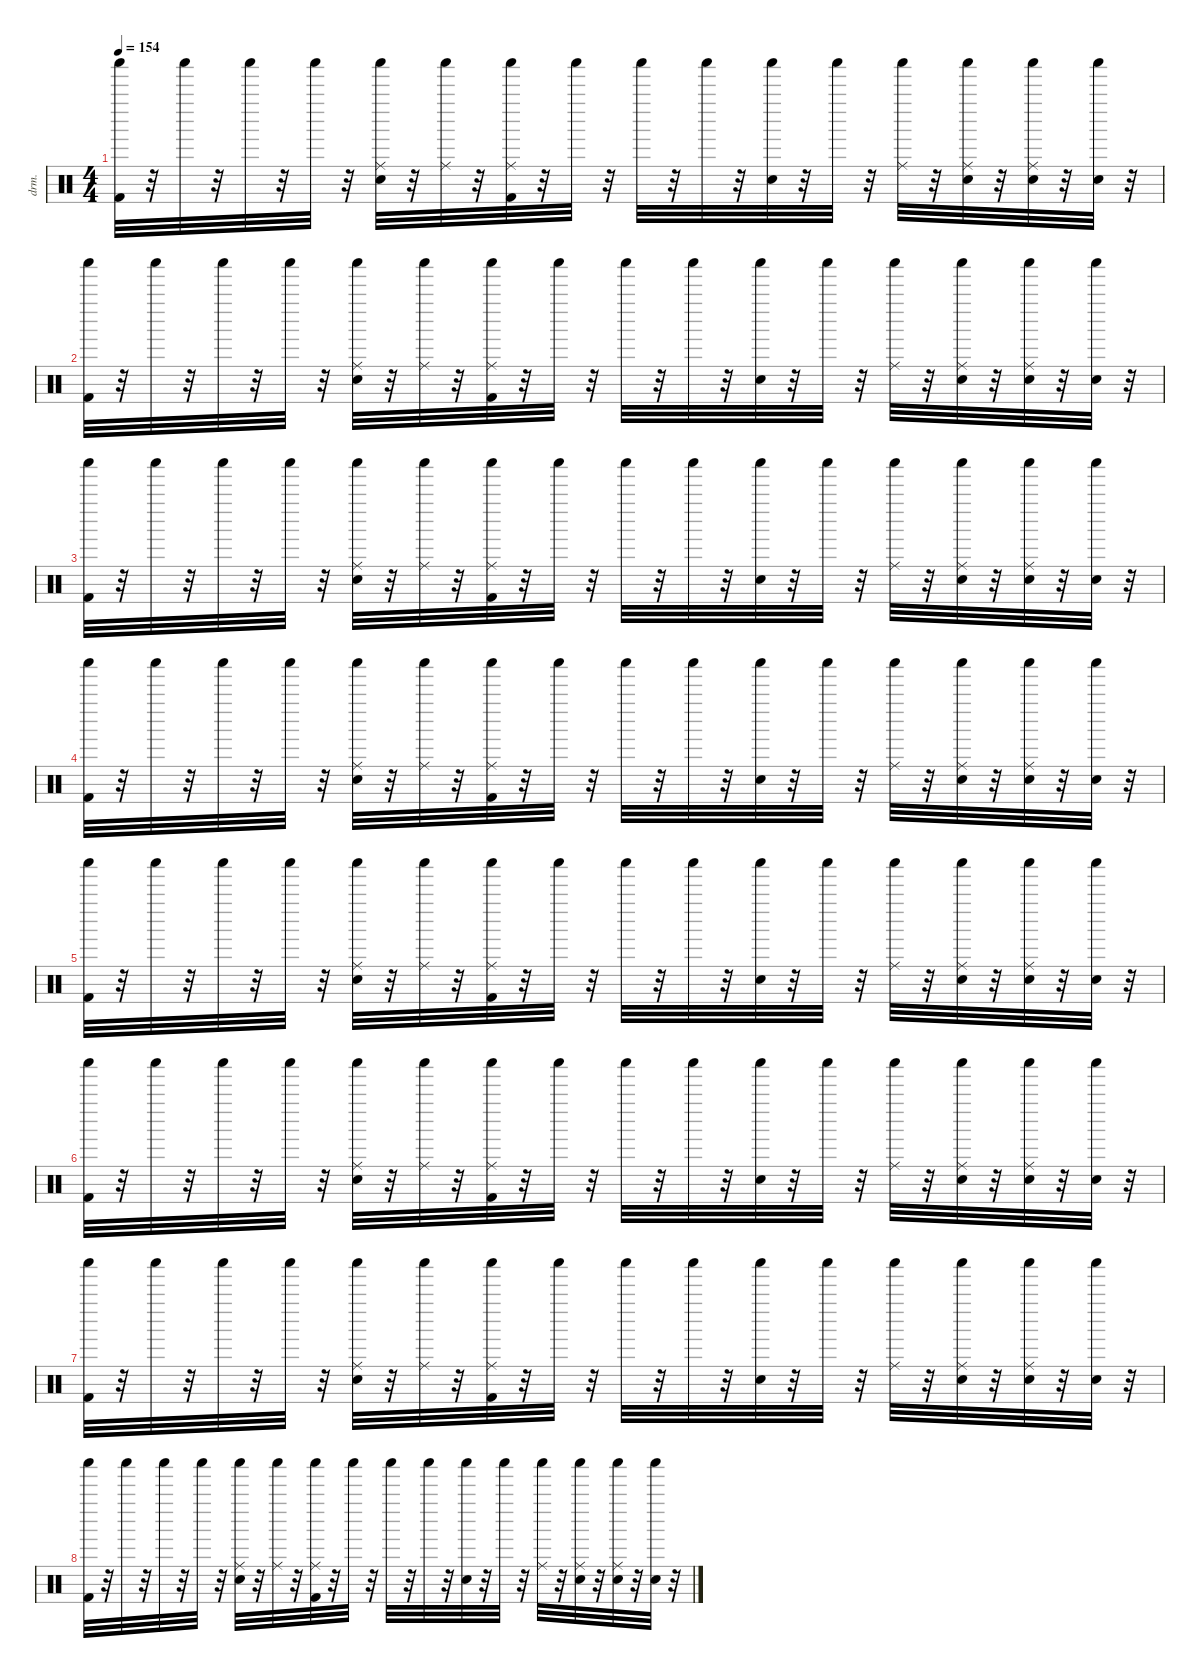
\defaultSystemsLayout 4
\hideDynamics
\bracketExtendMode nobrackets
\otherSystemsTrackNameOrientation horizontal
\track ("Percussion" "drm.") {instrument percussion}
\staff {score}
\articulation defaults
\ts (4 4)
\tempo 154
\clef neutral
\ks c
("Shaker (hit)" "Kick (hit) 2").32{dy f beam Down} r.32{beam Down} "Shaker (hit)".32{beam Down} r.32{beam Down} "Shaker (hit)".32{beam Down} r.32{beam Down} "Shaker (hit)".32{beam Down} r.32{beam Down} ("Shaker (hit)" "Snare (hit) 2" "Ride (middle)").32{beam Down} r.32{beam Down} ("Shaker (hit)" "Ride (middle)").32{beam Down} r.32{beam Down} ("Shaker (hit)" "Kick (hit) 2" "Ride (middle)").32{beam Down} r.32{beam Down} "Shaker (hit)".32{beam Down} r.32{beam Down} "Shaker (hit)".32{beam Down} r.32{beam Down} "Shaker (hit)".32{beam Down} r.32{beam Down} ("Shaker (hit)" "Snare (hit) 2").32{beam Down} r.32{beam Down} "Shaker (hit)".32{beam Down} r.32{beam Down} ("Shaker (hit)" "Ride (middle)").32{beam Down} r.32{beam Down} ("Shaker (hit)" "Snare (hit) 2" "Ride (middle)").32{beam Down} r.32{beam Down} ("Shaker (hit)" "Snare (hit) 2" "Ride (middle)").32{beam Down} r.32{beam Down} ("Shaker (hit)" "Snare (hit) 2").32{beam Down} r.32{beam Down} |
("Shaker (hit)" "Kick (hit) 2").32{beam Down} r.32{beam Down} "Shaker (hit)".32{beam Down} r.32{beam Down} "Shaker (hit)".32{beam Down} r.32{beam Down} "Shaker (hit)".32{beam Down} r.32{beam Down} ("Shaker (hit)" "Snare (hit) 2" "Ride (middle)").32{beam Down} r.32{beam Down} ("Shaker (hit)" "Ride (middle)").32{beam Down} r.32{beam Down} ("Shaker (hit)" "Kick (hit) 2" "Ride (middle)").32{beam Down} r.32{beam Down} "Shaker (hit)".32{beam Down} r.32{beam Down} "Shaker (hit)".32{beam Down} r.32{beam Down} "Shaker (hit)".32{beam Down} r.32{beam Down} ("Shaker (hit)" "Snare (hit) 2").32{beam Down} r.32{beam Down} "Shaker (hit)".32{beam Down} r.32{beam Down} ("Shaker (hit)" "Ride (middle)").32{beam Down} r.32{beam Down} ("Shaker (hit)" "Snare (hit) 2" "Ride (middle)").32{beam Down} r.32{beam Down} ("Shaker (hit)" "Snare (hit) 2" "Ride (middle)").32{beam Down} r.32{beam Down} ("Shaker (hit)" "Snare (hit) 2").32{beam Down} r.32{beam Down} |
("Shaker (hit)" "Kick (hit) 2").32{beam Down} r.32{beam Down} "Shaker (hit)".32{beam Down} r.32{beam Down} "Shaker (hit)".32{beam Down} r.32{beam Down} "Shaker (hit)".32{beam Down} r.32{beam Down} ("Shaker (hit)" "Snare (hit) 2" "Ride (middle)").32{beam Down} r.32{beam Down} ("Shaker (hit)" "Ride (middle)").32{beam Down} r.32{beam Down} ("Shaker (hit)" "Kick (hit) 2" "Ride (middle)").32{beam Down} r.32{beam Down} "Shaker (hit)".32{beam Down} r.32{beam Down} "Shaker (hit)".32{beam Down} r.32{beam Down} "Shaker (hit)".32{beam Down} r.32{beam Down} ("Shaker (hit)" "Snare (hit) 2").32{beam Down} r.32{beam Down} "Shaker (hit)".32{beam Down} r.32{beam Down} ("Shaker (hit)" "Ride (middle)").32{beam Down} r.32{beam Down} ("Shaker (hit)" "Snare (hit) 2" "Ride (middle)").32{beam Down} r.32{beam Down} ("Shaker (hit)" "Snare (hit) 2" "Ride (middle)").32{beam Down} r.32{beam Down} ("Shaker (hit)" "Snare (hit) 2").32{beam Down} r.32{beam Down} |
("Shaker (hit)" "Kick (hit) 2").32{beam Down} r.32{beam Down} "Shaker (hit)".32{beam Down} r.32{beam Down} "Shaker (hit)".32{beam Down} r.32{beam Down} "Shaker (hit)".32{beam Down} r.32{beam Down} ("Shaker (hit)" "Snare (hit) 2" "Ride (middle)").32{beam Down} r.32{beam Down} ("Shaker (hit)" "Ride (middle)").32{beam Down} r.32{beam Down} ("Shaker (hit)" "Kick (hit) 2" "Ride (middle)").32{beam Down} r.32{beam Down} "Shaker (hit)".32{beam Down} r.32{beam Down} "Shaker (hit)".32{beam Down} r.32{beam Down} "Shaker (hit)".32{beam Down} r.32{beam Down} ("Shaker (hit)" "Snare (hit) 2").32{beam Down} r.32{beam Down} "Shaker (hit)".32{beam Down} r.32{beam Down} ("Shaker (hit)" "Ride (middle)").32{beam Down} r.32{beam Down} ("Shaker (hit)" "Snare (hit) 2" "Ride (middle)").32{beam Down} r.32{beam Down} ("Shaker (hit)" "Snare (hit) 2" "Ride (middle)").32{beam Down} r.32{beam Down} ("Shaker (hit)" "Snare (hit) 2").32{beam Down} r.32{beam Down} |
("Shaker (hit)" "Kick (hit) 2").32{beam Down} r.32{beam Down} "Shaker (hit)".32{beam Down} r.32{beam Down} "Shaker (hit)".32{beam Down} r.32{beam Down} "Shaker (hit)".32{beam Down} r.32{beam Down} ("Shaker (hit)" "Snare (hit) 2" "Ride (middle)").32{beam Down} r.32{beam Down} ("Shaker (hit)" "Ride (middle)").32{beam Down} r.32{beam Down} ("Shaker (hit)" "Kick (hit) 2" "Ride (middle)").32{beam Down} r.32{beam Down} "Shaker (hit)".32{beam Down} r.32{beam Down} "Shaker (hit)".32{beam Down} r.32{beam Down} "Shaker (hit)".32{beam Down} r.32{beam Down} ("Shaker (hit)" "Snare (hit) 2").32{beam Down} r.32{beam Down} "Shaker (hit)".32{beam Down} r.32{beam Down} ("Shaker (hit)" "Ride (middle)").32{beam Down} r.32{beam Down} ("Shaker (hit)" "Snare (hit) 2" "Ride (middle)").32{beam Down} r.32{beam Down} ("Shaker (hit)" "Snare (hit) 2" "Ride (middle)").32{beam Down} r.32{beam Down} ("Shaker (hit)" "Snare (hit) 2").32{beam Down} r.32{beam Down} |
("Shaker (hit)" "Kick (hit) 2").32{beam Down} r.32{beam Down} "Shaker (hit)".32{beam Down} r.32{beam Down} "Shaker (hit)".32{beam Down} r.32{beam Down} "Shaker (hit)".32{beam Down} r.32{beam Down} ("Shaker (hit)" "Snare (hit) 2" "Ride (middle)").32{beam Down} r.32{beam Down} ("Shaker (hit)" "Ride (middle)").32{beam Down} r.32{beam Down} ("Shaker (hit)" "Kick (hit) 2" "Ride (middle)").32{beam Down} r.32{beam Down} "Shaker (hit)".32{beam Down} r.32{beam Down} "Shaker (hit)".32{beam Down} r.32{beam Down} "Shaker (hit)".32{beam Down} r.32{beam Down} ("Shaker (hit)" "Snare (hit) 2").32{beam Down} r.32{beam Down} "Shaker (hit)".32{beam Down} r.32{beam Down} ("Shaker (hit)" "Ride (middle)").32{beam Down} r.32{beam Down} ("Shaker (hit)" "Snare (hit) 2" "Ride (middle)").32{beam Down} r.32{beam Down} ("Shaker (hit)" "Snare (hit) 2" "Ride (middle)").32{beam Down} r.32{beam Down} ("Shaker (hit)" "Snare (hit) 2").32{beam Down} r.32{beam Down} |
("Shaker (hit)" "Kick (hit) 2").32{beam Down} r.32{beam Down} "Shaker (hit)".32{beam Down} r.32{beam Down} "Shaker (hit)".32{beam Down} r.32{beam Down} "Shaker (hit)".32{beam Down} r.32{beam Down} ("Shaker (hit)" "Snare (hit) 2" "Ride (middle)").32{beam Down} r.32{beam Down} ("Shaker (hit)" "Ride (middle)").32{beam Down} r.32{beam Down} ("Shaker (hit)" "Kick (hit) 2" "Ride (middle)").32{beam Down} r.32{beam Down} "Shaker (hit)".32{beam Down} r.32{beam Down} "Shaker (hit)".32{beam Down} r.32{beam Down} "Shaker (hit)".32{beam Down} r.32{beam Down} ("Shaker (hit)" "Snare (hit) 2").32{beam Down} r.32{beam Down} "Shaker (hit)".32{beam Down} r.32{beam Down} ("Shaker (hit)" "Ride (middle)").32{beam Down} r.32{beam Down} ("Shaker (hit)" "Snare (hit) 2" "Ride (middle)").32{beam Down} r.32{beam Down} ("Shaker (hit)" "Snare (hit) 2" "Ride (middle)").32{beam Down} r.32{beam Down} ("Shaker (hit)" "Snare (hit) 2").32{beam Down} r.32{beam Down} |
("Shaker (hit)" "Kick (hit) 2").32{beam Down} r.32{beam Down} "Shaker (hit)".32{beam Down} r.32{beam Down} "Shaker (hit)".32{beam Down} r.32{beam Down} "Shaker (hit)".32{beam Down} r.32{beam Down} ("Shaker (hit)" "Snare (hit) 2" "Ride (middle)").32{beam Down} r.32{beam Down} ("Shaker (hit)" "Ride (middle)").32{beam Down} r.32{beam Down} ("Shaker (hit)" "Kick (hit) 2" "Ride (middle)").32{beam Down} r.32{beam Down} "Shaker (hit)".32{beam Down} r.32{beam Down} "Shaker (hit)".32{beam Down} r.32{beam Down} "Shaker (hit)".32{beam Down} r.32{beam Down} ("Shaker (hit)" "Snare (hit) 2").32{beam Down} r.32{beam Down} "Shaker (hit)".32{beam Down} r.32{beam Down} ("Shaker (hit)" "Ride (middle)").32{beam Down} r.32{beam Down} ("Shaker (hit)" "Snare (hit) 2" "Ride (middle)").32{beam Down} r.32{beam Down} ("Shaker (hit)" "Snare (hit) 2" "Ride (middle)").32{beam Down} r.32{beam Down} ("Shaker (hit)" "Snare (hit) 2").32{beam Down} r.32{beam Down}
